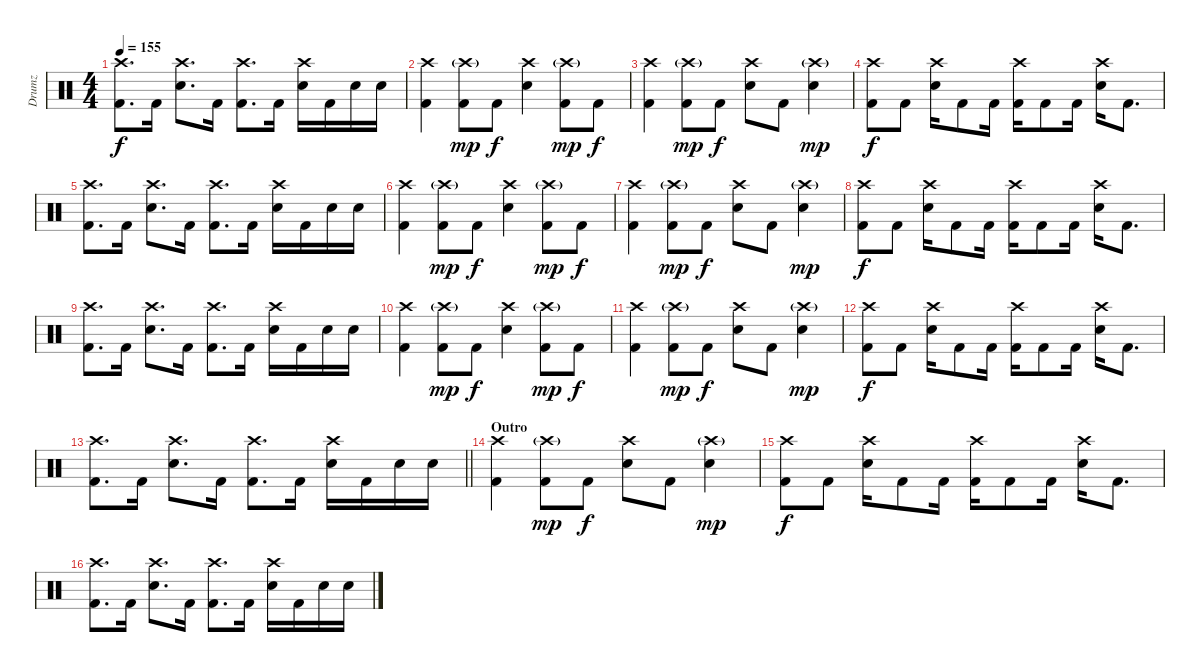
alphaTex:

\track ("Drumz" "Drumz") {instrument percussion}
\staff {score}
\articulation defaults
\ts (4 4)
\tempo 155
\clef neutral
\ks c
("Kick (hit) 2" "Crash high (hit)").8{d dy f} "Kick (hit) 2".16 ("Crash high (hit)" "Electric Snare (hit)").8{d} "Kick (hit) 2".16 ("Kick (hit) 2" "Crash high (hit)").8{d} "Kick (hit) 2".16 ("Crash high (hit)" "Electric Snare (hit)").16 "Kick (hit) 2".16 "Electric Snare (hit)".16 "Electric Snare (hit)".16 |
("Kick (hit) 2" "Crash high (hit)").4 ("Kick (hit) 2" "Crash high (hit)"{g}).8{dy mp} "Kick (hit) 2".8{dy f} ("Crash high (hit)" "Electric Snare (hit)").4 ("Kick (hit) 2" "Crash high (hit)"{g}).8{dy mp} "Kick (hit) 2".8{dy f} |
("Kick (hit) 2" "Crash high (hit)").4 ("Kick (hit) 2" "Crash high (hit)"{g}).8{dy mp} "Kick (hit) 2".8{dy f} ("Crash high (hit)" "Electric Snare (hit)").8 "Kick (hit) 2".8 ("Electric Snare (hit)" "Crash high (hit)"{g}).4{dy mp} |
("Kick (hit) 2" "Crash high (hit)").8{dy f} "Kick (hit) 2".8 ("Crash high (hit)" "Electric Snare (hit)").16 "Kick (hit) 2".8 "Kick (hit) 2".16 ("Kick (hit) 2" "Crash high (hit)").16 "Kick (hit) 2".8 "Kick (hit) 2".16 ("Crash high (hit)" "Electric Snare (hit)").16 "Kick (hit) 2".8{d} |
("Kick (hit) 2" "Crash high (hit)").8{d} "Kick (hit) 2".16 ("Crash high (hit)" "Electric Snare (hit)").8{d} "Kick (hit) 2".16 ("Kick (hit) 2" "Crash high (hit)").8{d} "Kick (hit) 2".16 ("Crash high (hit)" "Electric Snare (hit)").16 "Kick (hit) 2".16 "Electric Snare (hit)".16 "Electric Snare (hit)".16 |
("Kick (hit) 2" "Crash high (hit)").4 ("Kick (hit) 2" "Crash high (hit)"{g}).8{dy mp} "Kick (hit) 2".8{dy f} ("Crash high (hit)" "Electric Snare (hit)").4 ("Kick (hit) 2" "Crash high (hit)"{g}).8{dy mp} "Kick (hit) 2".8{dy f} |
("Kick (hit) 2" "Crash high (hit)").4 ("Kick (hit) 2" "Crash high (hit)"{g}).8{dy mp} "Kick (hit) 2".8{dy f} ("Crash high (hit)" "Electric Snare (hit)").8 "Kick (hit) 2".8 ("Electric Snare (hit)" "Crash high (hit)"{g}).4{dy mp} |
("Kick (hit) 2" "Crash high (hit)").8{dy f} "Kick (hit) 2".8 ("Crash high (hit)" "Electric Snare (hit)").16 "Kick (hit) 2".8 "Kick (hit) 2".16 ("Kick (hit) 2" "Crash high (hit)").16 "Kick (hit) 2".8 "Kick (hit) 2".16 ("Crash high (hit)" "Electric Snare (hit)").16 "Kick (hit) 2".8{d} |
("Kick (hit) 2" "Crash high (hit)").8{d} "Kick (hit) 2".16 ("Crash high (hit)" "Electric Snare (hit)").8{d} "Kick (hit) 2".16 ("Kick (hit) 2" "Crash high (hit)").8{d} "Kick (hit) 2".16 ("Crash high (hit)" "Electric Snare (hit)").16 "Kick (hit) 2".16 "Electric Snare (hit)".16 "Electric Snare (hit)".16 |
("Kick (hit) 2" "Crash high (hit)").4 ("Kick (hit) 2" "Crash high (hit)"{g}).8{dy mp} "Kick (hit) 2".8{dy f} ("Crash high (hit)" "Electric Snare (hit)").4 ("Kick (hit) 2" "Crash high (hit)"{g}).8{dy mp} "Kick (hit) 2".8{dy f} |
("Kick (hit) 2" "Crash high (hit)").4 ("Kick (hit) 2" "Crash high (hit)"{g}).8{dy mp} "Kick (hit) 2".8{dy f} ("Crash high (hit)" "Electric Snare (hit)").8 "Kick (hit) 2".8 ("Electric Snare (hit)" "Crash high (hit)"{g}).4{dy mp} |
("Kick (hit) 2" "Crash high (hit)").8{dy f} "Kick (hit) 2".8 ("Crash high (hit)" "Electric Snare (hit)").16 "Kick (hit) 2".8 "Kick (hit) 2".16 ("Kick (hit) 2" "Crash high (hit)").16 "Kick (hit) 2".8 "Kick (hit) 2".16 ("Crash high (hit)" "Electric Snare (hit)").16 "Kick (hit) 2".8{d} |
\barLineRight lightlight
("Kick (hit) 2" "Crash high (hit)").8{d} "Kick (hit) 2".16 ("Crash high (hit)" "Electric Snare (hit)").8{d} "Kick (hit) 2".16 ("Kick (hit) 2" "Crash high (hit)").8{d} "Kick (hit) 2".16 ("Crash high (hit)" "Electric Snare (hit)").16 "Kick (hit) 2".16 "Electric Snare (hit)".16 "Electric Snare (hit)".16 |
\section ("" "Outro")
("Kick (hit) 2" "Crash high (hit)").4 ("Kick (hit) 2" "Crash high (hit)"{g}).8{dy mp} "Kick (hit) 2".8{dy f} ("Crash high (hit)" "Electric Snare (hit)").8 "Kick (hit) 2".8 ("Electric Snare (hit)" "Crash high (hit)"{g}).4{dy mp} |
("Kick (hit) 2" "Crash high (hit)").8{dy f} "Kick (hit) 2".8 ("Crash high (hit)" "Electric Snare (hit)").16 "Kick (hit) 2".8 "Kick (hit) 2".16 ("Kick (hit) 2" "Crash high (hit)").16 "Kick (hit) 2".8 "Kick (hit) 2".16 ("Crash high (hit)" "Electric Snare (hit)").16 "Kick (hit) 2".8{d} |
("Kick (hit) 2" "Crash high (hit)").8{d} "Kick (hit) 2".16 ("Crash high (hit)" "Electric Snare (hit)").8{d} "Kick (hit) 2".16 ("Kick (hit) 2" "Crash high (hit)").8{d} "Kick (hit) 2".16 ("Crash high (hit)" "Electric Snare (hit)").16 "Kick (hit) 2".16 "Electric Snare (hit)".16 "Electric Snare (hit)".16
